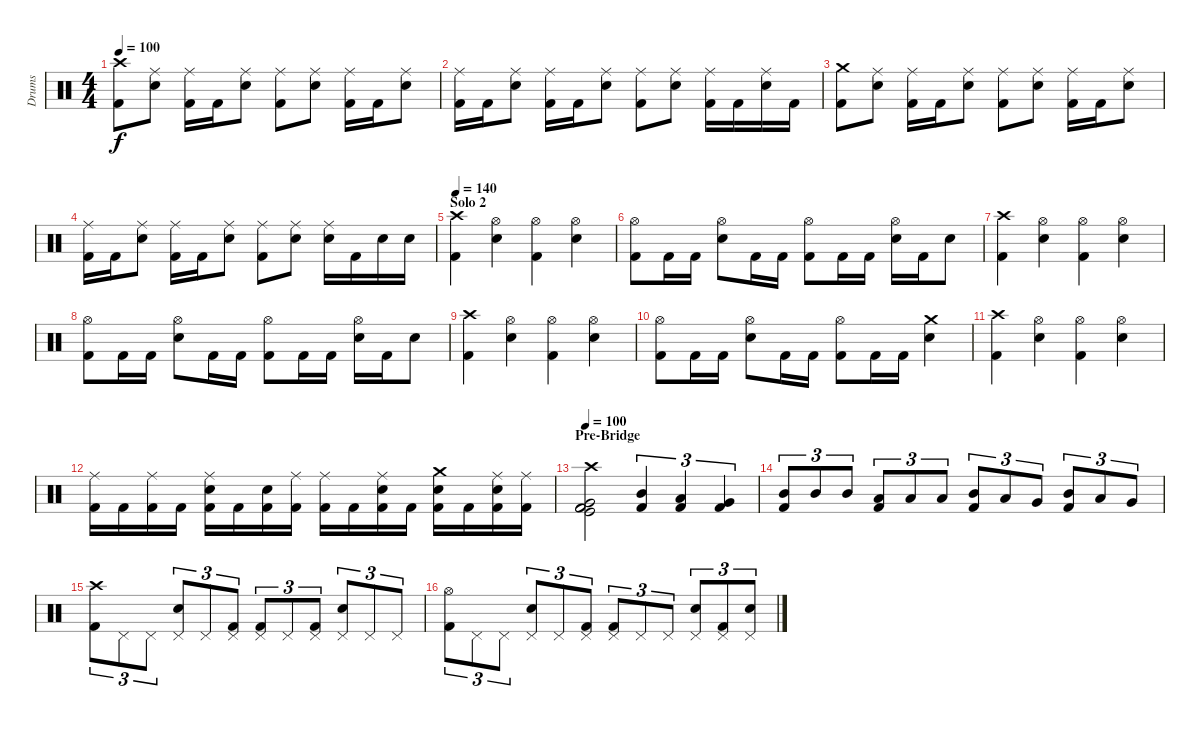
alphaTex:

\track ("Drums" "Drums") {instrument percussion}
\staff {score}
\articulation defaults
\ts (4 4)
\tempo 100
\clef neutral
\ks c
("Crash high (hit)" "Kick (hit) 2").8{dy f} ("Ride (middle)" "Snare (hit) 2").8 ("Ride (middle)" "Kick (hit) 2").16 "Kick (hit) 2".16 ("Ride (middle)" "Snare (hit) 2").8 ("Ride (middle)" "Kick (hit) 2").8 ("Ride (middle)" "Snare (hit) 2").8 ("Ride (middle)" "Kick (hit) 2").16 "Kick (hit) 2".16 ("Ride (middle)" "Snare (hit) 2").8 |
("Ride (middle)" "Kick (hit) 2").16 "Kick (hit) 2".16 ("Ride (middle)" "Snare (hit) 2").8 ("Ride (middle)" "Kick (hit) 2").16 "Kick (hit) 2".16 ("Ride (middle)" "Snare (hit) 2").8 ("Ride (middle)" "Kick (hit) 2").8 ("Ride (middle)" "Snare (hit) 2").8 ("Ride (middle)" "Kick (hit) 2").16 "Kick (hit) 2".16 ("Ride (middle)" "Snare (hit) 2").16 "Kick (hit) 2".16 |
("Crash medium (hit)" "Kick (hit) 2").8 ("Ride (middle)" "Snare (hit) 2").8 ("Ride (middle)" "Kick (hit) 2").16 "Kick (hit) 2".16 ("Ride (middle)" "Snare (hit) 2").8 ("Ride (middle)" "Kick (hit) 2").8 ("Ride (middle)" "Snare (hit) 2").8 ("Ride (middle)" "Kick (hit) 2").16 "Kick (hit) 2".16 ("Ride (middle)" "Snare (hit) 2").8 |
("Ride (middle)" "Kick (hit) 2").16 "Kick (hit) 2".16 ("Ride (middle)" "Snare (hit) 2").8 ("Ride (middle)" "Kick (hit) 2").16 "Kick (hit) 2".16 ("Ride (middle)" "Snare (hit) 2").8 ("Ride (middle)" "Kick (hit) 2").8 ("Ride (middle)" "Snare (hit) 2").8 ("Ride (middle)" "Snare (hit) 2").16 "Kick (hit) 2".16 "Snare (hit) 2".16 "Snare (hit) 2".16 |
\section ("" "Solo 2")
\tempo 140
("Crash high (hit)" "Kick (hit) 2").4 ("Hi-Hat (open)" "Snare (hit) 2").4 ("Hi-Hat (open)" "Kick (hit) 2").4 ("Hi-Hat (open)" "Snare (hit) 2").4 |
("Hi-Hat (open)" "Kick (hit) 2").8 "Kick (hit) 2".16 "Kick (hit) 2".16 ("Hi-Hat (open)" "Snare (hit) 2").8 "Kick (hit) 2".16 "Kick (hit) 2".16 ("Hi-Hat (open)" "Kick (hit) 2").8 "Kick (hit) 2".16 "Kick (hit) 2".16 ("Hi-Hat (open)" "Snare (hit) 2").16 "Kick (hit) 2".16 "Snare (hit) 2".8 |
("Crash high (hit)" "Kick (hit) 2").4 ("Hi-Hat (open)" "Snare (hit) 2").4 ("Hi-Hat (open)" "Kick (hit) 2").4 ("Hi-Hat (open)" "Snare (hit) 2").4 |
("Hi-Hat (open)" "Kick (hit) 2").8 "Kick (hit) 2".16 "Kick (hit) 2".16 ("Hi-Hat (open)" "Snare (hit) 2").8 "Kick (hit) 2".16 "Kick (hit) 2".16 ("Hi-Hat (open)" "Kick (hit) 2").8 "Kick (hit) 2".16 "Kick (hit) 2".16 ("Hi-Hat (open)" "Snare (hit) 2").16 "Kick (hit) 2".16 "Snare (hit) 2".8 |
("Crash high (hit)" "Kick (hit) 2").4 ("Hi-Hat (open)" "Snare (hit) 2").4 ("Hi-Hat (open)" "Kick (hit) 2").4 ("Hi-Hat (open)" "Snare (hit) 2").4 |
("Hi-Hat (open)" "Kick (hit) 2").8 "Kick (hit) 2".16 "Kick (hit) 2".16 ("Hi-Hat (open)" "Snare (hit) 2").8 "Kick (hit) 2".16 "Kick (hit) 2".16 ("Hi-Hat (open)" "Kick (hit) 2").8 "Kick (hit) 2".16 "Kick (hit) 2".16 ("Crash medium (hit)" "Snare (hit) 2").4 |
("Crash high (hit)" "Kick (hit) 2").4 ("Hi-Hat (open)" "Snare (hit) 2").4 ("Hi-Hat (open)" "Kick (hit) 2").4 ("Hi-Hat (open)" "Snare (hit) 2").4 |
("Ride (middle)" "Kick (hit) 2").16 "Kick (hit) 2".16 ("Ride (middle)" "Kick (hit) 2").16 "Kick (hit) 2".16 ("Ride (middle)" "Snare (hit) 2" "Kick (hit) 2").16 "Kick (hit) 2".16 ("Snare (hit) 2" "Kick (hit) 2").16 ("Ride (middle)" "Kick (hit) 2").16 ("Ride (middle)" "Kick (hit) 2").16 "Kick (hit) 2".16 ("Ride (middle)" "Snare (hit) 2" "Kick (hit) 2").16 "Kick (hit) 2".16 ("Crash medium (hit)" "Snare (hit) 2" "Kick (hit) 2").16 "Kick (hit) 2".16 ("Ride (middle)" "Snare (hit) 2" "Kick (hit) 2").16 ("Ride (middle)" "Kick (hit) 2").16 |
\section ("" "Pre-Bridge")
\tempo 100
("Crash high (hit)" "Very Low Tom (hit)" "Kick (hit)" "Kick (hit) 2" "Kick (hit) 2").2 ("Mid Tom (hit)" "Kick (hit) 2").4{tu (3 2)} ("Low Tom (hit)" "Kick (hit) 2").4{tu (3 2)} ("Very Low Tom (hit)" "Kick (hit) 2").4{tu (3 2)} |
("Mid Tom (hit)" "Kick (hit) 2").8{tu (3 2)} "Mid Tom (hit)".8{tu (3 2)} "Mid Tom (hit)".8{tu (3 2)} ("Low Tom (hit)" "Kick (hit) 2").8{tu (3 2)} "Low Tom (hit)".8{tu (3 2)} "Low Tom (hit)".8{tu (3 2)} ("Mid Tom (hit)" "Kick (hit) 2").8{tu (3 2)} "Low Tom (hit)".8{tu (3 2)} "Very Low Tom (hit)".8{tu (3 2)} ("Mid Tom (hit)" "Kick (hit) 2").8{tu (3 2)} "Low Tom (hit)".8{tu (3 2)} "Very Low Tom (hit)".8{tu (3 2)} |
("Crash high (hit)" "Kick (hit) 2").8{tu (3 2)} "Pedal Hi-Hat (hit)".8{tu (3 2)} "Pedal Hi-Hat (hit)".8{tu (3 2)} ("Pedal Hi-Hat (hit)" "Electric Snare (hit)").8{tu (3 2)} "Pedal Hi-Hat (hit)".8{tu (3 2)} ("Pedal Hi-Hat (hit)" "Kick (hit) 2").8{tu (3 2)} ("Pedal Hi-Hat (hit)" "Kick (hit) 2").8{tu (3 2)} "Pedal Hi-Hat (hit)".8{tu (3 2)} ("Pedal Hi-Hat (hit)" "Kick (hit) 2").8{tu (3 2)} ("Pedal Hi-Hat (hit)" "Electric Snare (hit)").8{tu (3 2)} "Pedal Hi-Hat (hit)".8{tu (3 2)} "Pedal Hi-Hat (hit)".8{tu (3 2)} |
("Hi-Hat (open)" "Kick (hit) 2").8{tu (3 2)} "Pedal Hi-Hat (hit)".8{tu (3 2)} "Pedal Hi-Hat (hit)".8{tu (3 2)} ("Pedal Hi-Hat (hit)" "Electric Snare (hit)").8{tu (3 2)} "Pedal Hi-Hat (hit)".8{tu (3 2)} ("Pedal Hi-Hat (hit)" "Kick (hit) 2").8{tu (3 2)} ("Pedal Hi-Hat (hit)" "Kick (hit) 2").8{tu (3 2)} "Pedal Hi-Hat (hit)".8{tu (3 2)} "Pedal Hi-Hat (hit)".8{tu (3 2)} ("Pedal Hi-Hat (hit)" "Electric Snare (hit)").8{tu (3 2)} ("Pedal Hi-Hat (hit)" "Kick (hit) 2").8{tu (3 2)} ("Pedal Hi-Hat (hit)" "Electric Snare (hit)").8{tu (3 2)}
